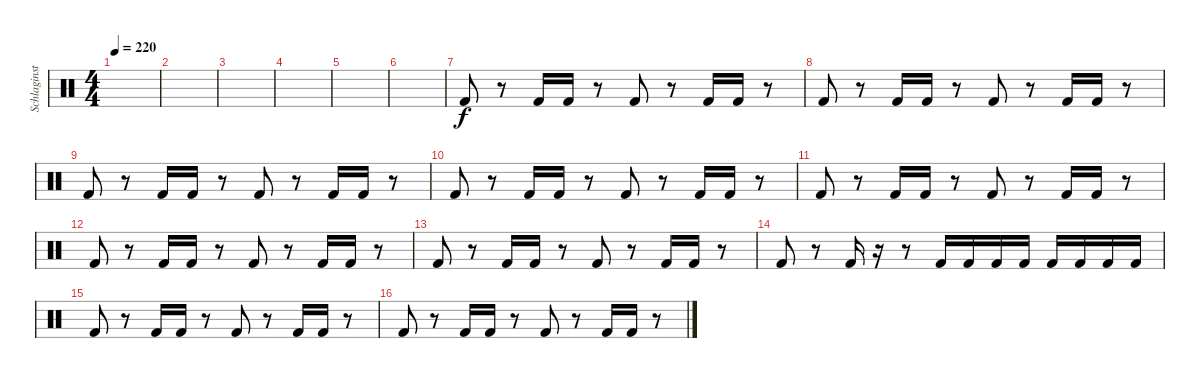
\track ("Schlaginstrumente - Auswahl" "Schlaginst") {instrument percussion}
\staff {score}
\articulation defaults
\ts (4 4)
\tempo 220
\clef neutral
\ks c
|
|
|
|
|
|
"Kick (hit) 2".8 r.8 "Kick (hit) 2".16 "Kick (hit) 2".16 r.8 "Kick (hit) 2".8 r.8 "Kick (hit) 2".16 "Kick (hit) 2".16 r.8 |
"Kick (hit) 2".8 r.8 "Kick (hit) 2".16 "Kick (hit) 2".16 r.8 "Kick (hit) 2".8 r.8 "Kick (hit) 2".16 "Kick (hit) 2".16 r.8 |
"Kick (hit) 2".8 r.8 "Kick (hit) 2".16 "Kick (hit) 2".16 r.8 "Kick (hit) 2".8 r.8 "Kick (hit) 2".16 "Kick (hit) 2".16 r.8 |
"Kick (hit) 2".8 r.8 "Kick (hit) 2".16 "Kick (hit) 2".16 r.8 "Kick (hit) 2".8 r.8 "Kick (hit) 2".16 "Kick (hit) 2".16 r.8 |
"Kick (hit) 2".8 r.8 "Kick (hit) 2".16 "Kick (hit) 2".16 r.8 "Kick (hit) 2".8 r.8 "Kick (hit) 2".16 "Kick (hit) 2".16 r.8 |
"Kick (hit) 2".8 r.8 "Kick (hit) 2".16 "Kick (hit) 2".16 r.8 "Kick (hit) 2".8 r.8 "Kick (hit) 2".16 "Kick (hit) 2".16 r.8 |
"Kick (hit) 2".8 r.8 "Kick (hit) 2".16 "Kick (hit) 2".16 r.8 "Kick (hit) 2".8 r.8 "Kick (hit) 2".16 "Kick (hit) 2".16 r.8 |
"Kick (hit) 2".8 r.8 "Kick (hit) 2".16 r.16 r.8 "Kick (hit) 2".16 "Kick (hit) 2".16 "Kick (hit) 2".16 "Kick (hit) 2".16 "Kick (hit) 2".16 "Kick (hit) 2".16 "Kick (hit) 2".16 "Kick (hit) 2".16 |
"Kick (hit) 2".8 r.8 "Kick (hit) 2".16 "Kick (hit) 2".16 r.8 "Kick (hit) 2".8 r.8 "Kick (hit) 2".16 "Kick (hit) 2".16 r.8 |
"Kick (hit) 2".8 r.8 "Kick (hit) 2".16 "Kick (hit) 2".16 r.8 "Kick (hit) 2".8 r.8 "Kick (hit) 2".16 "Kick (hit) 2".16 r.8
